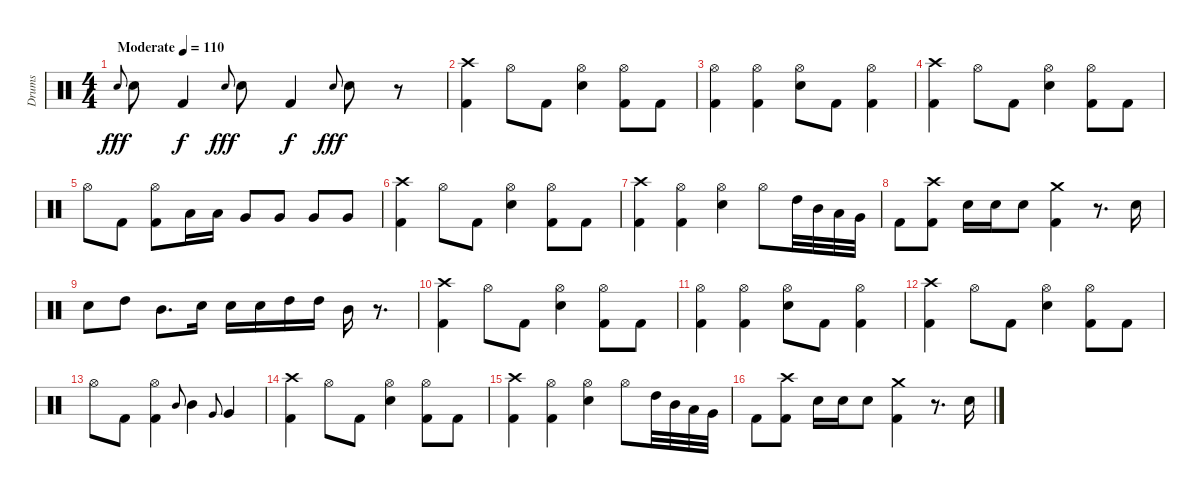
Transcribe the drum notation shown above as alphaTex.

\track ("Drums" "Drums") {instrument percussion}
\staff {score}
\articulation defaults
\ts (4 4)
\tempo (110 "Moderate")
\clef neutral
\ks c "Snare (hit) 2".8{gr onbeat dy fff} "Snare (hit) 2".8 "Kick (hit) 2".4{dy f} "Snare (hit) 2".8{gr onbeat dy fff} "Snare (hit) 2".8 "Kick (hit) 2".4{dy f} "Snare (hit) 2".8{gr onbeat dy fff} "Snare (hit) 2".8
r.8 |
("Crash high (hit)" "Kick (hit) 2").4 "Hi-Hat (open)".8 "Kick (hit) 2".8 ("Hi-Hat (open)" "Snare (hit) 2").4 ("Hi-Hat (open)" "Kick (hit) 2").8 "Kick (hit) 2".8 |
("Kick (hit) 2" "Hi-Hat (open)").4 ("Hi-Hat (open)" "Kick (hit) 2").4 ("Hi-Hat (open)" "Snare (hit) 2").8 "Kick (hit) 2".8 ("Kick (hit) 2" "Hi-Hat (open)").4 |
("Crash high (hit)" "Kick (hit) 2").4 "Hi-Hat (open)".8 "Kick (hit) 2".8 ("Hi-Hat (open)" "Snare (hit) 2").4 ("Hi-Hat (open)" "Kick (hit) 2").8 "Kick (hit) 2".8 |
"Hi-Hat (open)".8 "Kick (hit) 2".8 ("Kick (hit) 2" "Hi-Hat (open)").8 "Low Tom (hit)".16 "Low Tom (hit)".16 "Very Low Tom (hit)".8 "Very Low Tom (hit)".8 "Very Low Tom (hit)".8 "Very Low Tom (hit)".8 |
("Crash high (hit)" "Kick (hit) 2").4 "Hi-Hat (open)".8 "Kick (hit) 2".8 ("Hi-Hat (open)" "Snare (hit) 2").4 ("Hi-Hat (open)" "Kick (hit) 2").8 "Kick (hit) 2".8 |
("Kick (hit) 2" "Crash high (hit)").4 ("Hi-Hat (open)" "Kick (hit) 2").4 ("Hi-Hat (open)" "Snare (hit) 2").4 "Hi-Hat (open)".8 "High Tom (hit)".32 "Mid Tom (hit)".32 "Low Tom (hit)".32 "Very Low Tom (hit)".32 |
"Kick (hit) 2".8 ("Kick (hit) 2" "Crash high (hit)").8 "Snare (hit) 2".16 "Snare (hit) 2".16 "Snare (hit) 2".8 ("Kick (hit) 2" "Crash medium (hit)").4 r.8{d} "Snare (hit) 2".16 |
"Snare (hit) 2".8 "High Tom (hit)".8 "Mid Tom (hit)".8{d} "Snare (hit) 2".16 "Snare (hit) 2".16 "Snare (hit) 2".16 "High Tom (hit)".16 "High Tom (hit)".16 "Mid Tom (hit)".16 r.8{d} |
("Crash high (hit)" "Kick (hit) 2").4 "Hi-Hat (open)".8 "Kick (hit) 2".8 ("Hi-Hat (open)" "Snare (hit) 2").4 ("Hi-Hat (open)" "Kick (hit) 2").8 "Kick (hit) 2".8 |
("Kick (hit) 2" "Hi-Hat (open)").4 ("Hi-Hat (open)" "Kick (hit) 2").4 ("Hi-Hat (open)" "Snare (hit) 2").8 "Kick (hit) 2".8 ("Kick (hit) 2" "Hi-Hat (open)").4 |
("Crash high (hit)" "Kick (hit) 2").4 "Hi-Hat (open)".8 "Kick (hit) 2".8 ("Hi-Hat (open)" "Snare (hit) 2").4 ("Hi-Hat (open)" "Kick (hit) 2").8 "Kick (hit) 2".8 |
"Hi-Hat (open)".8 "Kick (hit) 2".8 ("Kick (hit) 2" "Hi-Hat (open)").4 "Mid Tom (hit)".8{gr onbeat} "Mid Tom (hit)".4 "Very Low Tom (hit)".8{gr onbeat} "Very Low Tom (hit)".4 |
("Crash high (hit)" "Kick (hit) 2").4 "Hi-Hat (open)".8 "Kick (hit) 2".8 ("Hi-Hat (open)" "Snare (hit) 2").4 ("Hi-Hat (open)" "Kick (hit) 2").8 "Kick (hit) 2".8 |
("Kick (hit) 2" "Crash high (hit)").4 ("Hi-Hat (open)" "Kick (hit) 2").4 ("Hi-Hat (open)" "Snare (hit) 2").4 "Hi-Hat (open)".8 "High Tom (hit)".32 "Mid Tom (hit)".32 "Low Tom (hit)".32 "Very Low Tom (hit)".32 |
"Kick (hit) 2".8 ("Kick (hit) 2" "Crash high (hit)").8 "Snare (hit) 2".16 "Snare (hit) 2".16 "Snare (hit) 2".8 ("Kick (hit) 2" "Crash medium (hit)").4 r.8{d} "Snare (hit) 2".16
